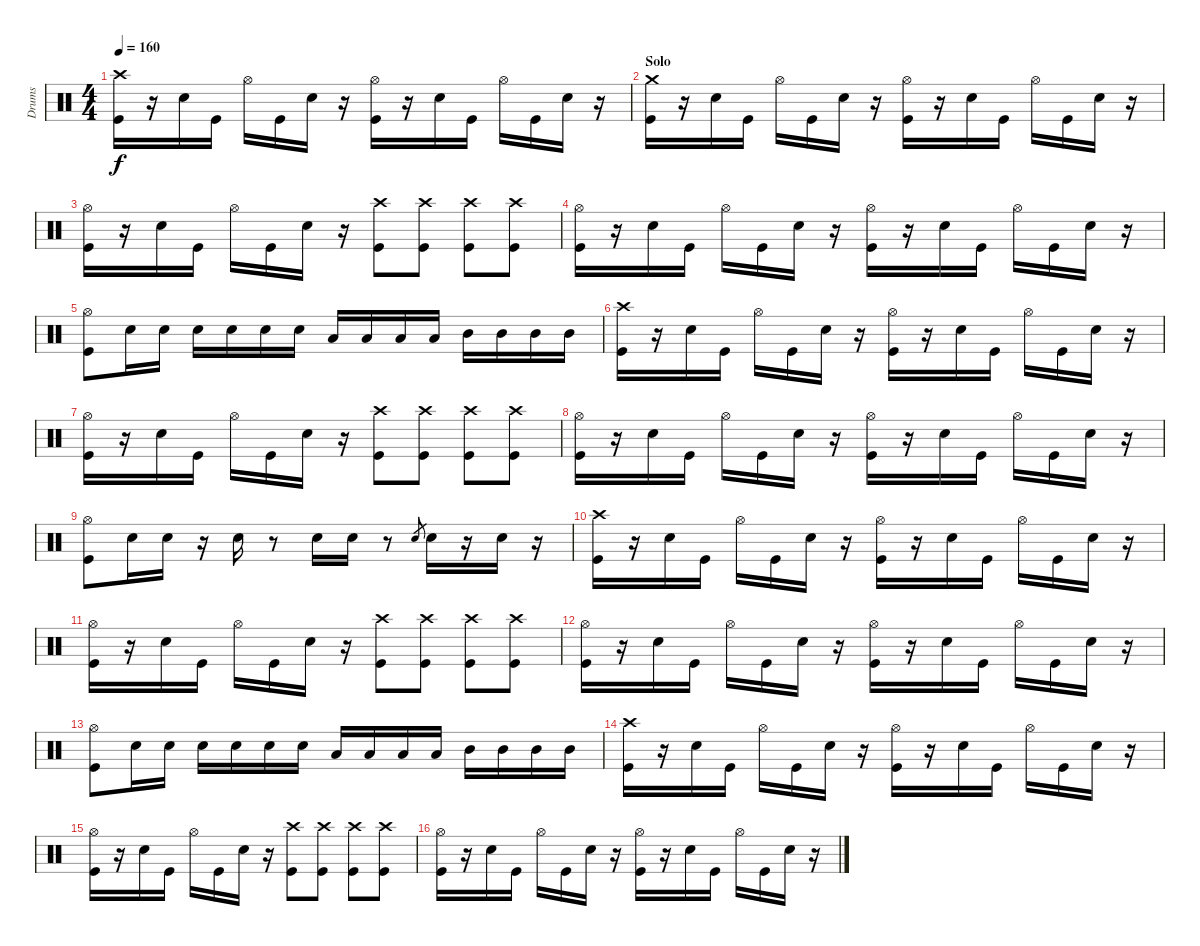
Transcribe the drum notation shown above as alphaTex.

\track ("Drums" "Drums") {instrument percussion}
\staff {score}
\articulation defaults
\ts (4 4)
\tempo 160
\clef neutral
\ks c
("Kick (hit)" "Crash high (hit)").16{dy f} r.16 "Snare (hit) 2".16 "Kick (hit)".16 "Hi-Hat (open)".16 "Kick (hit)".16 "Snare (hit) 2".16 r.16 ("Kick (hit)" "Hi-Hat (open)").16 r.16 "Snare (hit) 2".16 "Kick (hit)".16 "Hi-Hat (open)".16 "Kick (hit)".16 "Snare (hit) 2".16 r.16 |
\section ("" "Solo")
("Kick (hit)" "Crash medium (hit)").16 r.16 "Snare (hit) 2".16 "Kick (hit)".16 "Hi-Hat (open)".16 "Kick (hit)".16 "Snare (hit) 2".16 r.16 ("Kick (hit)" "Hi-Hat (open)").16 r.16 "Snare (hit) 2".16 "Kick (hit)".16 "Hi-Hat (open)".16 "Kick (hit)".16 "Snare (hit) 2".16 r.16 |
("Kick (hit)" "Hi-Hat (open)").16 r.16 "Snare (hit) 2".16 "Kick (hit)".16 "Hi-Hat (open)".16 "Kick (hit)".16 "Snare (hit) 2".16 r.16 ("Kick (hit)" "Crash high (hit)").8 ("Kick (hit)" "Crash high (hit)").8 ("Kick (hit)" "Crash high (hit)").8 ("Kick (hit)" "Crash high (hit)").8 |
("Kick (hit)" "Hi-Hat (open)").16 r.16 "Snare (hit) 2".16 "Kick (hit)".16 "Hi-Hat (open)".16 "Kick (hit)".16 "Snare (hit) 2".16 r.16 ("Kick (hit)" "Hi-Hat (open)").16 r.16 "Snare (hit) 2".16 "Kick (hit)".16 "Hi-Hat (open)".16 "Kick (hit)".16 "Snare (hit) 2".16 r.16 |
("Kick (hit)" "Hi-Hat (open)").8 "Snare (hit) 2".16 "Snare (hit) 2".16 "Snare (hit) 2".16 "Snare (hit) 2".16 "Snare (hit) 2".16 "Snare (hit) 2".16 "Low Tom (hit)".16 "Low Tom (hit)".16 "Low Tom (hit)".16 "Low Tom (hit)".16 "Mid Tom (hit)".16 "Mid Tom (hit)".16 "Mid Tom (hit)".16 "Mid Tom (hit)".16 |
("Kick (hit)" "Crash high (hit)").16 r.16 "Snare (hit) 2".16 "Kick (hit)".16 "Hi-Hat (open)".16 "Kick (hit)".16 "Snare (hit) 2".16 r.16 ("Kick (hit)" "Hi-Hat (open)").16 r.16 "Snare (hit) 2".16 "Kick (hit)".16 "Hi-Hat (open)".16 "Kick (hit)".16 "Snare (hit) 2".16 r.16 |
("Kick (hit)" "Hi-Hat (open)").16 r.16 "Snare (hit) 2".16 "Kick (hit)".16 "Hi-Hat (open)".16 "Kick (hit)".16 "Snare (hit) 2".16 r.16 ("Kick (hit)" "Crash high (hit)").8 ("Kick (hit)" "Crash high (hit)").8 ("Kick (hit)" "Crash high (hit)").8 ("Kick (hit)" "Crash high (hit)").8 |
("Kick (hit)" "Hi-Hat (open)").16 r.16 "Snare (hit) 2".16 "Kick (hit)".16 "Hi-Hat (open)".16 "Kick (hit)".16 "Snare (hit) 2".16 r.16 ("Kick (hit)" "Hi-Hat (open)").16 r.16 "Snare (hit) 2".16 "Kick (hit)".16 "Hi-Hat (open)".16 "Kick (hit)".16 "Snare (hit) 2".16 r.16 |
("Kick (hit)" "Hi-Hat (open)").8 "Snare (hit) 2".16 "Snare (hit) 2".16 r.16 "Snare (hit) 2".16 r.8 "Snare (hit) 2".16 "Snare (hit) 2".16 r.8 "Snare (hit) 2".8{gr} "Snare (hit) 2".16 r.16 "Snare (hit) 2".16 r.16 |
("Kick (hit)" "Crash high (hit)").16 r.16 "Snare (hit) 2".16 "Kick (hit)".16 "Hi-Hat (open)".16 "Kick (hit)".16 "Snare (hit) 2".16 r.16 ("Kick (hit)" "Hi-Hat (open)").16 r.16 "Snare (hit) 2".16 "Kick (hit)".16 "Hi-Hat (open)".16 "Kick (hit)".16 "Snare (hit) 2".16 r.16 |
("Kick (hit)" "Hi-Hat (open)").16 r.16 "Snare (hit) 2".16 "Kick (hit)".16 "Hi-Hat (open)".16 "Kick (hit)".16 "Snare (hit) 2".16 r.16 ("Kick (hit)" "Crash high (hit)").8 ("Kick (hit)" "Crash high (hit)").8 ("Kick (hit)" "Crash high (hit)").8 ("Kick (hit)" "Crash high (hit)").8 |
("Kick (hit)" "Hi-Hat (open)").16 r.16 "Snare (hit) 2".16 "Kick (hit)".16 "Hi-Hat (open)".16 "Kick (hit)".16 "Snare (hit) 2".16 r.16 ("Kick (hit)" "Hi-Hat (open)").16 r.16 "Snare (hit) 2".16 "Kick (hit)".16 "Hi-Hat (open)".16 "Kick (hit)".16 "Snare (hit) 2".16 r.16 |
("Kick (hit)" "Hi-Hat (open)").8 "Snare (hit) 2".16 "Snare (hit) 2".16 "Snare (hit) 2".16 "Snare (hit) 2".16 "Snare (hit) 2".16 "Snare (hit) 2".16 "Low Tom (hit)".16 "Low Tom (hit)".16 "Low Tom (hit)".16 "Low Tom (hit)".16 "Mid Tom (hit)".16 "Mid Tom (hit)".16 "Mid Tom (hit)".16 "Mid Tom (hit)".16 |
("Kick (hit)" "Crash high (hit)").16 r.16 "Snare (hit) 2".16 "Kick (hit)".16 "Hi-Hat (open)".16 "Kick (hit)".16 "Snare (hit) 2".16 r.16 ("Kick (hit)" "Hi-Hat (open)").16 r.16 "Snare (hit) 2".16 "Kick (hit)".16 "Hi-Hat (open)".16 "Kick (hit)".16 "Snare (hit) 2".16 r.16 |
("Kick (hit)" "Hi-Hat (open)").16 r.16 "Snare (hit) 2".16 "Kick (hit)".16 "Hi-Hat (open)".16 "Kick (hit)".16 "Snare (hit) 2".16 r.16 ("Kick (hit)" "Crash high (hit)").8 ("Kick (hit)" "Crash high (hit)").8 ("Kick (hit)" "Crash high (hit)").8 ("Kick (hit)" "Crash high (hit)").8 |
("Kick (hit)" "Hi-Hat (open)").16 r.16 "Snare (hit) 2".16 "Kick (hit)".16 "Hi-Hat (open)".16 "Kick (hit)".16 "Snare (hit) 2".16 r.16 ("Kick (hit)" "Hi-Hat (open)").16 r.16 "Snare (hit) 2".16 "Kick (hit)".16 "Hi-Hat (open)".16 "Kick (hit)".16 "Snare (hit) 2".16 r.16
